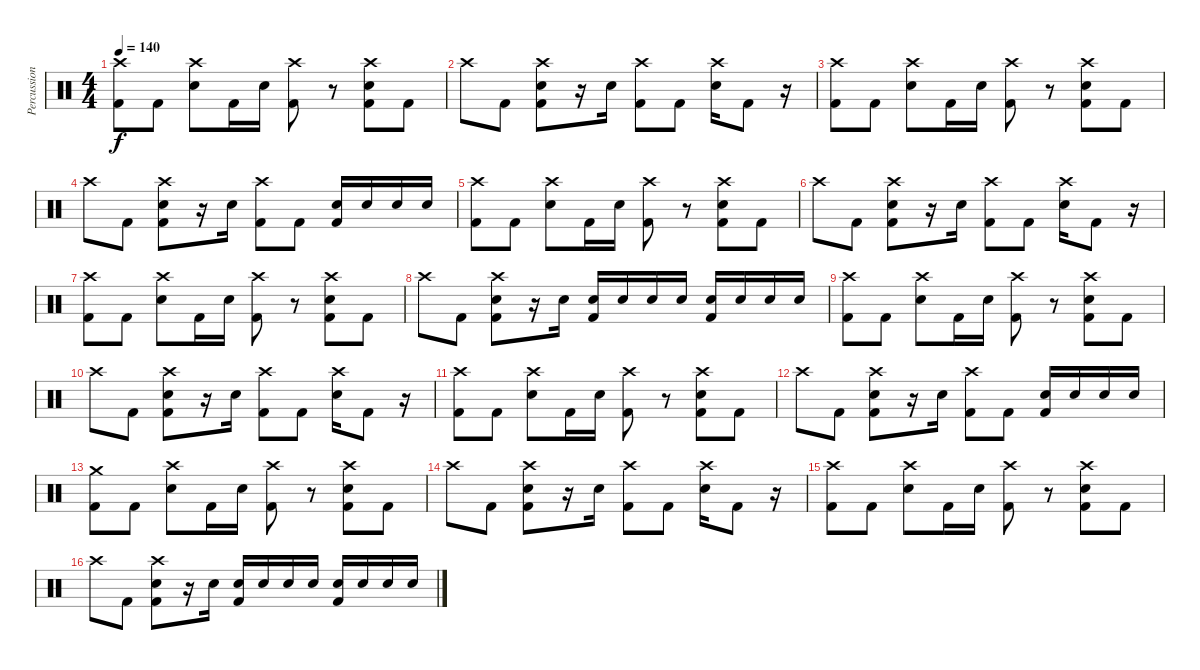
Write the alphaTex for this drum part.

\track ("Percussion" "Percussion") {instrument percussion}
\staff {score}
\articulation defaults
\ts (4 4)
\tempo 140
\clef neutral
\ks c
("Crash high (hit)" "Kick (hit) 2").8{dy f} "Kick (hit) 2".8 ("Crash high (hit)" "Electric Snare (hit)").8 "Kick (hit) 2".16 "Electric Snare (hit)".16 ("Crash high (hit)" "Kick (hit) 2").8 r.8 ("Crash high (hit)" "Electric Snare (hit)" "Kick (hit) 2").8 "Kick (hit) 2".8 |
"Crash high (hit)".8 "Kick (hit) 2".8 ("Crash high (hit)" "Electric Snare (hit)" "Kick (hit) 2").8 r.16 "Electric Snare (hit)".16 ("Crash high (hit)" "Kick (hit) 2").8 "Kick (hit) 2".8 ("Crash high (hit)" "Electric Snare (hit)").16 "Kick (hit) 2".8 r.16 |
("Crash high (hit)" "Kick (hit) 2").8 "Kick (hit) 2".8 ("Crash high (hit)" "Electric Snare (hit)").8 "Kick (hit) 2".16 "Electric Snare (hit)".16 ("Crash high (hit)" "Kick (hit) 2").8 r.8 ("Crash high (hit)" "Electric Snare (hit)" "Kick (hit) 2").8 "Kick (hit) 2".8 |
"Crash high (hit)".8 "Kick (hit) 2".8 ("Crash high (hit)" "Electric Snare (hit)" "Kick (hit) 2").8 r.16 "Electric Snare (hit)".16 ("Crash high (hit)" "Kick (hit) 2").8 "Kick (hit) 2".8 ("Electric Snare (hit)" "Kick (hit) 2").16 "Electric Snare (hit)".16 "Electric Snare (hit)".16 "Electric Snare (hit)".16 |
("Crash high (hit)" "Kick (hit) 2").8 "Kick (hit) 2".8 ("Crash high (hit)" "Electric Snare (hit)").8 "Kick (hit) 2".16 "Electric Snare (hit)".16 ("Crash high (hit)" "Kick (hit) 2").8 r.8 ("Crash high (hit)" "Electric Snare (hit)" "Kick (hit) 2").8 "Kick (hit) 2".8 |
"Crash high (hit)".8 "Kick (hit) 2".8 ("Crash high (hit)" "Electric Snare (hit)" "Kick (hit) 2").8 r.16 "Electric Snare (hit)".16 ("Crash high (hit)" "Kick (hit) 2").8 "Kick (hit) 2".8 ("Crash high (hit)" "Electric Snare (hit)").16 "Kick (hit) 2".8 r.16 |
("Crash high (hit)" "Kick (hit) 2").8 "Kick (hit) 2".8 ("Crash high (hit)" "Electric Snare (hit)").8 "Kick (hit) 2".16 "Electric Snare (hit)".16 ("Crash high (hit)" "Kick (hit) 2").8 r.8 ("Crash high (hit)" "Electric Snare (hit)" "Kick (hit) 2").8 "Kick (hit) 2".8 |
"Crash high (hit)".8 "Kick (hit) 2".8 ("Crash high (hit)" "Electric Snare (hit)" "Kick (hit) 2").8 r.16 "Electric Snare (hit)".16 ("Electric Snare (hit)" "Kick (hit) 2").16 "Electric Snare (hit)".16 "Electric Snare (hit)".16 "Electric Snare (hit)".16 ("Electric Snare (hit)" "Kick (hit) 2").16 "Electric Snare (hit)".16 "Electric Snare (hit)".16 "Electric Snare (hit)".16 |
("Crash high (hit)" "Kick (hit) 2").8 "Kick (hit) 2".8 ("Crash high (hit)" "Electric Snare (hit)").8 "Kick (hit) 2".16 "Electric Snare (hit)".16 ("Crash high (hit)" "Kick (hit) 2").8 r.8 ("Crash high (hit)" "Electric Snare (hit)" "Kick (hit) 2").8 "Kick (hit) 2".8 |
"Crash high (hit)".8 "Kick (hit) 2".8 ("Crash high (hit)" "Electric Snare (hit)" "Kick (hit) 2").8 r.16 "Electric Snare (hit)".16 ("Crash high (hit)" "Kick (hit) 2").8 "Kick (hit) 2".8 ("Crash high (hit)" "Electric Snare (hit)").16 "Kick (hit) 2".8 r.16 |
("Crash high (hit)" "Kick (hit) 2").8 "Kick (hit) 2".8 ("Crash high (hit)" "Electric Snare (hit)").8 "Kick (hit) 2".16 "Electric Snare (hit)".16 ("Crash high (hit)" "Kick (hit) 2").8 r.8 ("Crash high (hit)" "Electric Snare (hit)" "Kick (hit) 2").8 "Kick (hit) 2".8 |
"Crash high (hit)".8 "Kick (hit) 2".8 ("Crash high (hit)" "Electric Snare (hit)" "Kick (hit) 2").8 r.16 "Electric Snare (hit)".16 ("Crash high (hit)" "Kick (hit) 2").8 "Kick (hit) 2".8 ("Electric Snare (hit)" "Kick (hit) 2").16 "Electric Snare (hit)".16 "Electric Snare (hit)".16 "Electric Snare (hit)".16 |
("Crash medium (hit)" "Kick (hit) 2").8 "Kick (hit) 2".8 ("Crash high (hit)" "Electric Snare (hit)").8 "Kick (hit) 2".16 "Electric Snare (hit)".16 ("Crash high (hit)" "Kick (hit) 2").8 r.8 ("Crash high (hit)" "Electric Snare (hit)" "Kick (hit) 2").8 "Kick (hit) 2".8 |
"Crash high (hit)".8 "Kick (hit) 2".8 ("Crash high (hit)" "Electric Snare (hit)" "Kick (hit) 2").8 r.16 "Electric Snare (hit)".16 ("Crash high (hit)" "Kick (hit) 2").8 "Kick (hit) 2".8 ("Crash high (hit)" "Electric Snare (hit)").16 "Kick (hit) 2".8 r.16 |
("Crash high (hit)" "Kick (hit) 2").8 "Kick (hit) 2".8 ("Crash high (hit)" "Electric Snare (hit)").8 "Kick (hit) 2".16 "Electric Snare (hit)".16 ("Crash high (hit)" "Kick (hit) 2").8 r.8 ("Crash high (hit)" "Electric Snare (hit)" "Kick (hit) 2").8 "Kick (hit) 2".8 |
"Crash high (hit)".8 "Kick (hit) 2".8 ("Crash high (hit)" "Electric Snare (hit)" "Kick (hit) 2").8 r.16 "Electric Snare (hit)".16 ("Electric Snare (hit)" "Kick (hit) 2").16 "Electric Snare (hit)".16 "Electric Snare (hit)".16 "Electric Snare (hit)".16 ("Electric Snare (hit)" "Kick (hit) 2").16 "Electric Snare (hit)".16 "Electric Snare (hit)".16 "Electric Snare (hit)".16
